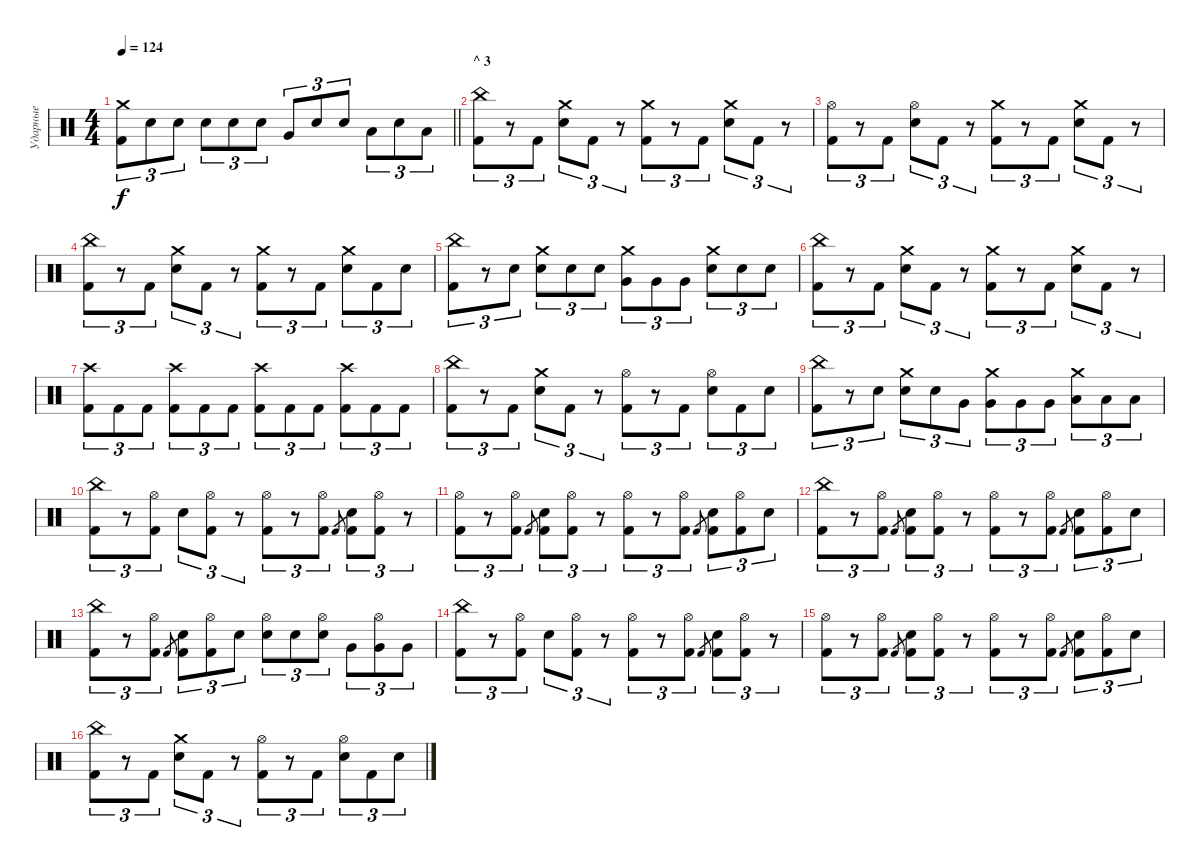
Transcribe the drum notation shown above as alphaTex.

\track ("Ударные" "Ударные") {instrument percussion}
\staff {score}
\articulation defaults
\ts (4 4)
\tempo 124
\clef neutral
\barLineRight lightlight
\ks c
("Crash medium (hit)" "Kick (hit) 2").8{tu (3 2) dy f} "Snare (hit) 2".8{tu (3 2)} "Snare (hit) 2".8{tu (3 2)} "Snare (hit) 2".8{tu (3 2)} "Snare (hit) 2".8{tu (3 2)} "Snare (hit) 2".8{tu (3 2)} "Very Low Tom (hit)".8{tu (3 2)} "Snare (hit) 2".8{tu (3 2)} "Snare (hit) 2".8{tu (3 2)} "Low Tom (hit)".8{tu (3 2)} "Snare (hit) 2".8{tu (3 2)} "Low Tom (hit)".8{tu (3 2)} |
\section ("" "^ 3")
("China (hit)" "Kick (hit) 2").8{tu (3 2)} r.8{tu (3 2)} "Kick (hit) 2".8{tu (3 2)} ("Crash medium (hit)" "Snare (hit) 2").8{tu (3 2)} "Kick (hit) 2".8{tu (3 2)} r.8{tu (3 2)} ("Crash medium (hit)" "Kick (hit) 2").8{tu (3 2)} r.8{tu (3 2)} "Kick (hit) 2".8{tu (3 2)} ("Crash medium (hit)" "Snare (hit) 2").8{tu (3 2)} "Kick (hit) 2".8{tu (3 2)} r.8{tu (3 2)} |
("Hi-Hat (open)" "Kick (hit) 2").8{tu (3 2)} r.8{tu (3 2)} "Kick (hit) 2".8{tu (3 2)} ("Hi-Hat (open)" "Snare (hit) 2").8{tu (3 2)} "Kick (hit) 2".8{tu (3 2)} r.8{tu (3 2)} ("Crash medium (hit)" "Kick (hit) 2").8{tu (3 2)} r.8{tu (3 2)} "Kick (hit) 2".8{tu (3 2)} ("Crash medium (hit)" "Snare (hit) 2").8{tu (3 2)} "Kick (hit) 2".8{tu (3 2)} r.8{tu (3 2)} |
("China (hit)" "Kick (hit) 2").8{tu (3 2)} r.8{tu (3 2)} "Kick (hit) 2".8{tu (3 2)} ("Crash medium (hit)" "Snare (hit) 2").8{tu (3 2)} "Kick (hit) 2".8{tu (3 2)} r.8{tu (3 2)} ("Crash medium (hit)" "Kick (hit) 2").8{tu (3 2)} r.8{tu (3 2)} "Kick (hit) 2".8{tu (3 2)} ("Crash medium (hit)" "Snare (hit) 2").8{tu (3 2)} "Kick (hit) 2".8{tu (3 2)} "Snare (hit) 2".8{tu (3 2)} |
("China (hit)" "Kick (hit) 2").8{tu (3 2)} r.8{tu (3 2)} "Snare (hit) 2".8{tu (3 2)} ("Crash medium (hit)" "Snare (hit) 2").8{tu (3 2)} "Snare (hit) 2".8{tu (3 2)} "Snare (hit) 2".8{tu (3 2)} ("Crash medium (hit)" "Very Low Tom (hit)").8{tu (3 2)} "Very Low Tom (hit)".8{tu (3 2)} "Very Low Tom (hit)".8{tu (3 2)} ("Crash medium (hit)" "Snare (hit) 2").8{tu (3 2)} "Snare (hit) 2".8{tu (3 2)} "Snare (hit) 2".8{tu (3 2)} |
("China (hit)" "Kick (hit) 2").8{tu (3 2)} r.8{tu (3 2)} "Kick (hit) 2".8{tu (3 2)} ("Crash medium (hit)" "Snare (hit) 2").8{tu (3 2)} "Kick (hit) 2".8{tu (3 2)} r.8{tu (3 2)} ("Crash medium (hit)" "Kick (hit) 2").8{tu (3 2)} r.8{tu (3 2)} "Kick (hit) 2".8{tu (3 2)} ("Crash medium (hit)" "Snare (hit) 2").8{tu (3 2)} "Kick (hit) 2".8{tu (3 2)} r.8{tu (3 2)} |
("Crash high (hit)" "Kick (hit) 2").8{tu (3 2)} "Kick (hit) 2".8{tu (3 2)} "Kick (hit) 2".8{tu (3 2)} ("Crash high (hit)" "Kick (hit) 2").8{tu (3 2)} "Kick (hit) 2".8{tu (3 2)} "Kick (hit) 2".8{tu (3 2)} ("Crash high (hit)" "Kick (hit) 2").8{tu (3 2)} "Kick (hit) 2".8{tu (3 2)} "Kick (hit) 2".8{tu (3 2)} ("Crash high (hit)" "Kick (hit) 2").8{tu (3 2)} "Kick (hit) 2".8{tu (3 2)} "Kick (hit) 2".8{tu (3 2)} |
("China (hit)" "Kick (hit) 2").8{tu (3 2)} r.8{tu (3 2)} "Kick (hit) 2".8{tu (3 2)} ("Crash medium (hit)" "Snare (hit) 2").8{tu (3 2)} "Kick (hit) 2".8{tu (3 2)} r.8{tu (3 2)} ("Hi-Hat (open)" "Kick (hit) 2").8{tu (3 2)} r.8{tu (3 2)} "Kick (hit) 2".8{tu (3 2)} ("Hi-Hat (open)" "Snare (hit) 2").8{tu (3 2)} "Kick (hit) 2".8{tu (3 2)} "Snare (hit) 2".8{tu (3 2)} |
("China (hit)" "Kick (hit) 2").8{tu (3 2)} r.8{tu (3 2)} "Snare (hit) 2".8{tu (3 2)} ("Crash medium (hit)" "Snare (hit) 2").8{tu (3 2)} "Snare (hit) 2".8{tu (3 2)} "Very Low Tom (hit)".8{tu (3 2)} ("Crash medium (hit)" "Very Low Tom (hit)").8{tu (3 2)} "Very Low Tom (hit)".8{tu (3 2)} "Very Low Tom (hit)".8{tu (3 2)} ("Crash medium (hit)" "Low Tom (hit)").8{tu (3 2)} "Low Tom (hit)".8{tu (3 2)} "Low Tom (hit)".8{tu (3 2)} |
("China (hit)" "Kick (hit) 2").8{tu (3 2)} r.8{tu (3 2)} ("Hi-Hat (open)" "Kick (hit) 2").8{tu (3 2)} "Snare (hit) 2".8{tu (3 2)} ("Hi-Hat (open)" "Kick (hit) 2").8{tu (3 2)} r.8{tu (3 2)} ("Hi-Hat (open)" "Kick (hit) 2").8{tu (3 2)} r.8{tu (3 2)} ("Hi-Hat (open)" "Kick (hit) 2").8{tu (3 2)} "Kick (hit) 2".8{gr} ("Snare (hit) 2" "Kick (hit) 2").8{tu (3 2)} ("Hi-Hat (open)" "Kick (hit) 2").8{tu (3 2)} r.8{tu (3 2)} |
("Hi-Hat (open)" "Kick (hit) 2").8{tu (3 2)} r.8{tu (3 2)} ("Hi-Hat (open)" "Kick (hit) 2").8{tu (3 2)} "Kick (hit) 2".8{gr} ("Snare (hit) 2" "Kick (hit) 2").8{tu (3 2)} ("Hi-Hat (open)" "Kick (hit) 2").8{tu (3 2)} r.8{tu (3 2)} ("Hi-Hat (open)" "Kick (hit) 2").8{tu (3 2)} r.8{tu (3 2)} ("Hi-Hat (open)" "Kick (hit) 2").8{tu (3 2)} "Kick (hit) 2".8{gr} ("Snare (hit) 2" "Kick (hit) 2").8{tu (3 2)} ("Hi-Hat (open)" "Kick (hit) 2").8{tu (3 2)} "Snare (hit) 2".8{tu (3 2)} |
("China (hit)" "Kick (hit) 2").8{tu (3 2)} r.8{tu (3 2)} ("Hi-Hat (open)" "Kick (hit) 2").8{tu (3 2)} "Kick (hit) 2".8{gr} ("Snare (hit) 2" "Kick (hit) 2").8{tu (3 2)} ("Hi-Hat (open)" "Kick (hit) 2").8{tu (3 2)} r.8{tu (3 2)} ("Hi-Hat (open)" "Kick (hit) 2").8{tu (3 2)} r.8{tu (3 2)} ("Hi-Hat (open)" "Kick (hit) 2").8{tu (3 2)} "Kick (hit) 2".8{gr} ("Snare (hit) 2" "Kick (hit) 2").8{tu (3 2)} ("Hi-Hat (open)" "Kick (hit) 2").8{tu (3 2)} "Snare (hit) 2".8{tu (3 2)} |
("China (hit)" "Kick (hit) 2").8{tu (3 2)} r.8{tu (3 2)} ("Hi-Hat (open)" "Kick (hit) 2").8{tu (3 2)} "Kick (hit) 2".8{gr} ("Snare (hit) 2" "Kick (hit) 2").8{tu (3 2)} ("Hi-Hat (open)" "Kick (hit) 2").8{tu (3 2)} "Snare (hit) 2".8{tu (3 2)} ("Hi-Hat (open)" "Snare (hit) 2").8{tu (3 2)} "Snare (hit) 2".8{tu (3 2)} ("Hi-Hat (open)" "Snare (hit) 2").8{tu (3 2)} "Very Low Tom (hit)".8{tu (3 2)} ("Hi-Hat (open)" "Very Low Tom (hit)").8{tu (3 2)} "Very Low Tom (hit)".8{tu (3 2)} |
("China (hit)" "Kick (hit) 2").8{tu (3 2)} r.8{tu (3 2)} ("Hi-Hat (open)" "Kick (hit) 2").8{tu (3 2)} "Snare (hit) 2".8{tu (3 2)} ("Hi-Hat (open)" "Kick (hit) 2").8{tu (3 2)} r.8{tu (3 2)} ("Hi-Hat (open)" "Kick (hit) 2").8{tu (3 2)} r.8{tu (3 2)} ("Hi-Hat (open)" "Kick (hit) 2").8{tu (3 2)} "Kick (hit) 2".8{gr} ("Snare (hit) 2" "Kick (hit) 2").8{tu (3 2)} ("Hi-Hat (open)" "Kick (hit) 2").8{tu (3 2)} r.8{tu (3 2)} |
("Hi-Hat (open)" "Kick (hit) 2").8{tu (3 2)} r.8{tu (3 2)} ("Hi-Hat (open)" "Kick (hit) 2").8{tu (3 2)} "Kick (hit) 2".8{gr} ("Snare (hit) 2" "Kick (hit) 2").8{tu (3 2)} ("Hi-Hat (open)" "Kick (hit) 2").8{tu (3 2)} r.8{tu (3 2)} ("Hi-Hat (open)" "Kick (hit) 2").8{tu (3 2)} r.8{tu (3 2)} ("Hi-Hat (open)" "Kick (hit) 2").8{tu (3 2)} "Kick (hit) 2".8{gr} ("Snare (hit) 2" "Kick (hit) 2").8{tu (3 2)} ("Hi-Hat (open)" "Kick (hit) 2").8{tu (3 2)} "Snare (hit) 2".8{tu (3 2)} |
("China (hit)" "Kick (hit) 2").8{tu (3 2)} r.8{tu (3 2)} "Kick (hit) 2".8{tu (3 2)} ("Crash medium (hit)" "Snare (hit) 2").8{tu (3 2)} "Kick (hit) 2".8{tu (3 2)} r.8{tu (3 2)} ("Hi-Hat (open)" "Kick (hit) 2").8{tu (3 2)} r.8{tu (3 2)} "Kick (hit) 2".8{tu (3 2)} ("Hi-Hat (open)" "Snare (hit) 2").8{tu (3 2)} "Kick (hit) 2".8{tu (3 2)} "Snare (hit) 2".8{tu (3 2)}
